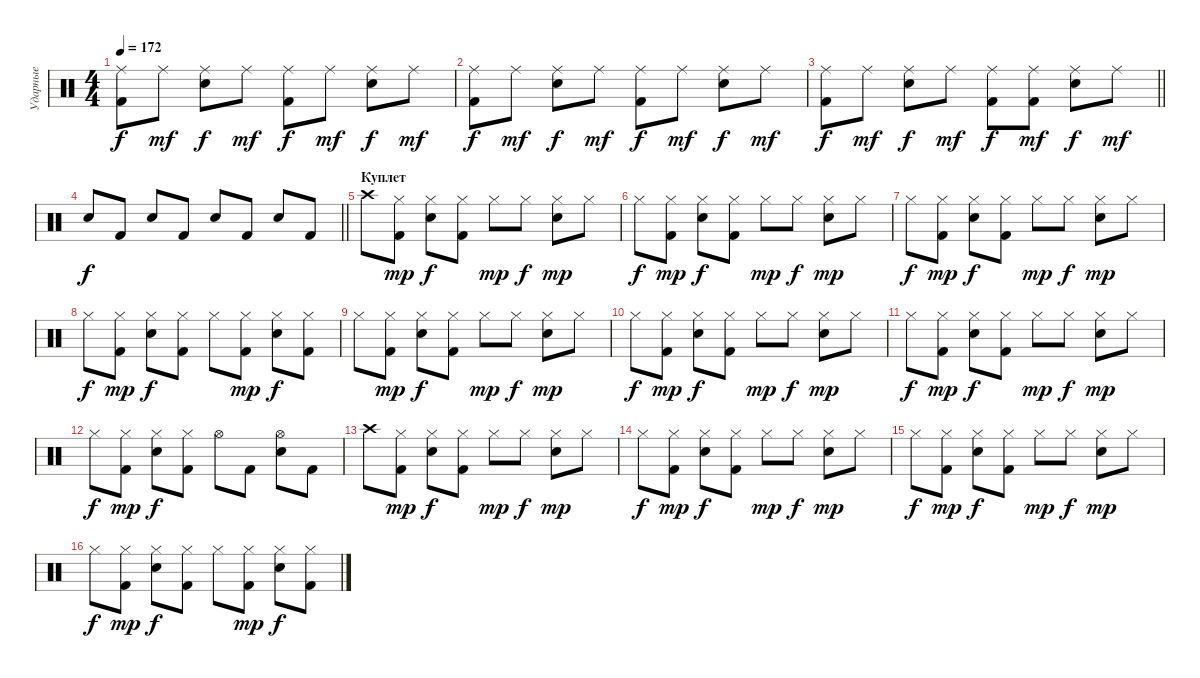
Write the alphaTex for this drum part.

\track ("Ударные" "Ударные") {instrument percussion}
\staff {score}
\articulation defaults
\ts (4 4)
\tempo 172
\clef neutral
\ks c
("Ride (middle)" "Kick (hit) 2").8{dy f} "Ride (middle)".8{dy mf} ("Ride (middle)" "Snare (hit) 2").8{dy f} "Ride (middle)".8{dy mf} ("Ride (middle)" "Kick (hit) 2").8{dy f} "Ride (middle)".8{dy mf} ("Ride (middle)" "Snare (hit) 2").8{dy f} "Ride (middle)".8{dy mf} |
("Ride (middle)" "Kick (hit) 2").8{dy f} "Ride (middle)".8{dy mf} ("Ride (middle)" "Snare (hit) 2").8{dy f} "Ride (middle)".8{dy mf} ("Ride (middle)" "Kick (hit) 2").8{dy f} "Ride (middle)".8{dy mf} ("Ride (middle)" "Snare (hit) 2").8{dy f} "Ride (middle)".8{dy mf} |
\barLineRight lightlight
("Ride (middle)" "Kick (hit) 2").8{dy f} "Ride (middle)".8{dy mf} ("Ride (middle)" "Snare (hit) 2").8{dy f} "Ride (middle)".8{dy mf} ("Ride (middle)" "Kick (hit) 2").8{dy f} ("Ride (middle)" "Kick (hit) 2").8{dy mf} ("Ride (middle)" "Snare (hit) 2").8{dy f} "Ride (middle)".8{dy mf} |
\barLineRight lightlight "Snare (hit) 2".8{dy f} "Kick (hit) 2".8 "Snare (hit) 2".8 "Kick (hit) 2".8 "Snare (hit) 2".8 "Kick (hit) 2".8 "Snare (hit) 2".8 "Kick (hit) 2".8
|
\section ("" "Куплет")
"Crash high (hit)".8 ("Hi-Hat (closed)" "Kick (hit) 2").8{dy mp} ("Hi-Hat (closed)" "Snare (hit) 2").8{dy f} ("Hi-Hat (closed)" "Kick (hit) 2").8 "Hi-Hat (closed)".8{dy mp} "Hi-Hat (closed)".8{dy f} ("Hi-Hat (closed)" "Snare (hit) 2").8{dy mp} "Hi-Hat (closed)".8 |
"Hi-Hat (closed)".8{dy f} ("Hi-Hat (closed)" "Kick (hit) 2").8{dy mp} ("Hi-Hat (closed)" "Snare (hit) 2").8{dy f} ("Hi-Hat (closed)" "Kick (hit) 2").8 "Hi-Hat (closed)".8{dy mp} "Hi-Hat (closed)".8{dy f} ("Hi-Hat (closed)" "Snare (hit) 2").8{dy mp} "Hi-Hat (closed)".8 |
"Hi-Hat (closed)".8{dy f} ("Hi-Hat (closed)" "Kick (hit) 2").8{dy mp} ("Hi-Hat (closed)" "Snare (hit) 2").8{dy f} ("Hi-Hat (closed)" "Kick (hit) 2").8 "Hi-Hat (closed)".8{dy mp} "Hi-Hat (closed)".8{dy f} ("Hi-Hat (closed)" "Snare (hit) 2").8{dy mp} "Hi-Hat (closed)".8 |
"Hi-Hat (closed)".8{dy f} ("Hi-Hat (closed)" "Kick (hit) 2").8{dy mp} ("Hi-Hat (closed)" "Snare (hit) 2").8{dy f} ("Hi-Hat (closed)" "Kick (hit) 2").8 "Hi-Hat (closed)".8 ("Hi-Hat (closed)" "Kick (hit) 2").8{dy mp} ("Hi-Hat (closed)" "Snare (hit) 2").8{dy f} ("Hi-Hat (closed)" "Kick (hit) 2").8 |
"Hi-Hat (closed)".8 ("Hi-Hat (closed)" "Kick (hit) 2").8{dy mp} ("Hi-Hat (closed)" "Snare (hit) 2").8{dy f} ("Hi-Hat (closed)" "Kick (hit) 2").8 "Hi-Hat (closed)".8{dy mp} "Hi-Hat (closed)".8{dy f} ("Hi-Hat (closed)" "Snare (hit) 2").8{dy mp} "Hi-Hat (closed)".8 |
"Hi-Hat (closed)".8{dy f} ("Hi-Hat (closed)" "Kick (hit) 2").8{dy mp} ("Hi-Hat (closed)" "Snare (hit) 2").8{dy f} ("Hi-Hat (closed)" "Kick (hit) 2").8 "Hi-Hat (closed)".8{dy mp} "Hi-Hat (closed)".8{dy f} ("Hi-Hat (closed)" "Snare (hit) 2").8{dy mp} "Hi-Hat (closed)".8 |
"Hi-Hat (closed)".8{dy f} ("Hi-Hat (closed)" "Kick (hit) 2").8{dy mp} ("Hi-Hat (closed)" "Snare (hit) 2").8{dy f} ("Hi-Hat (closed)" "Kick (hit) 2").8 "Hi-Hat (closed)".8{dy mp} "Hi-Hat (closed)".8{dy f} ("Hi-Hat (closed)" "Snare (hit) 2").8{dy mp} "Hi-Hat (closed)".8 |
"Hi-Hat (closed)".8{dy f} ("Hi-Hat (closed)" "Kick (hit) 2").8{dy mp} ("Hi-Hat (closed)" "Snare (hit) 2").8{dy f} ("Hi-Hat (closed)" "Kick (hit) 2").8 "Hi-Hat (open)".8 "Kick (hit) 2".8 ("Hi-Hat (open)" "Snare (hit) 2").8 "Kick (hit) 2".8 |
"Crash high (hit)".8 ("Hi-Hat (closed)" "Kick (hit) 2").8{dy mp} ("Hi-Hat (closed)" "Snare (hit) 2").8{dy f} ("Hi-Hat (closed)" "Kick (hit) 2").8 "Hi-Hat (closed)".8{dy mp} "Hi-Hat (closed)".8{dy f} ("Hi-Hat (closed)" "Snare (hit) 2").8{dy mp} "Hi-Hat (closed)".8 |
"Hi-Hat (closed)".8{dy f} ("Hi-Hat (closed)" "Kick (hit) 2").8{dy mp} ("Hi-Hat (closed)" "Snare (hit) 2").8{dy f} ("Hi-Hat (closed)" "Kick (hit) 2").8 "Hi-Hat (closed)".8{dy mp} "Hi-Hat (closed)".8{dy f} ("Hi-Hat (closed)" "Snare (hit) 2").8{dy mp} "Hi-Hat (closed)".8 |
"Hi-Hat (closed)".8{dy f} ("Hi-Hat (closed)" "Kick (hit) 2").8{dy mp} ("Hi-Hat (closed)" "Snare (hit) 2").8{dy f} ("Hi-Hat (closed)" "Kick (hit) 2").8 "Hi-Hat (closed)".8{dy mp} "Hi-Hat (closed)".8{dy f} ("Hi-Hat (closed)" "Snare (hit) 2").8{dy mp} "Hi-Hat (closed)".8 |
"Hi-Hat (closed)".8{dy f} ("Hi-Hat (closed)" "Kick (hit) 2").8{dy mp} ("Hi-Hat (closed)" "Snare (hit) 2").8{dy f} ("Hi-Hat (closed)" "Kick (hit) 2").8 "Hi-Hat (closed)".8 ("Hi-Hat (closed)" "Kick (hit) 2").8{dy mp} ("Hi-Hat (closed)" "Snare (hit) 2").8{dy f} ("Hi-Hat (closed)" "Kick (hit) 2").8
